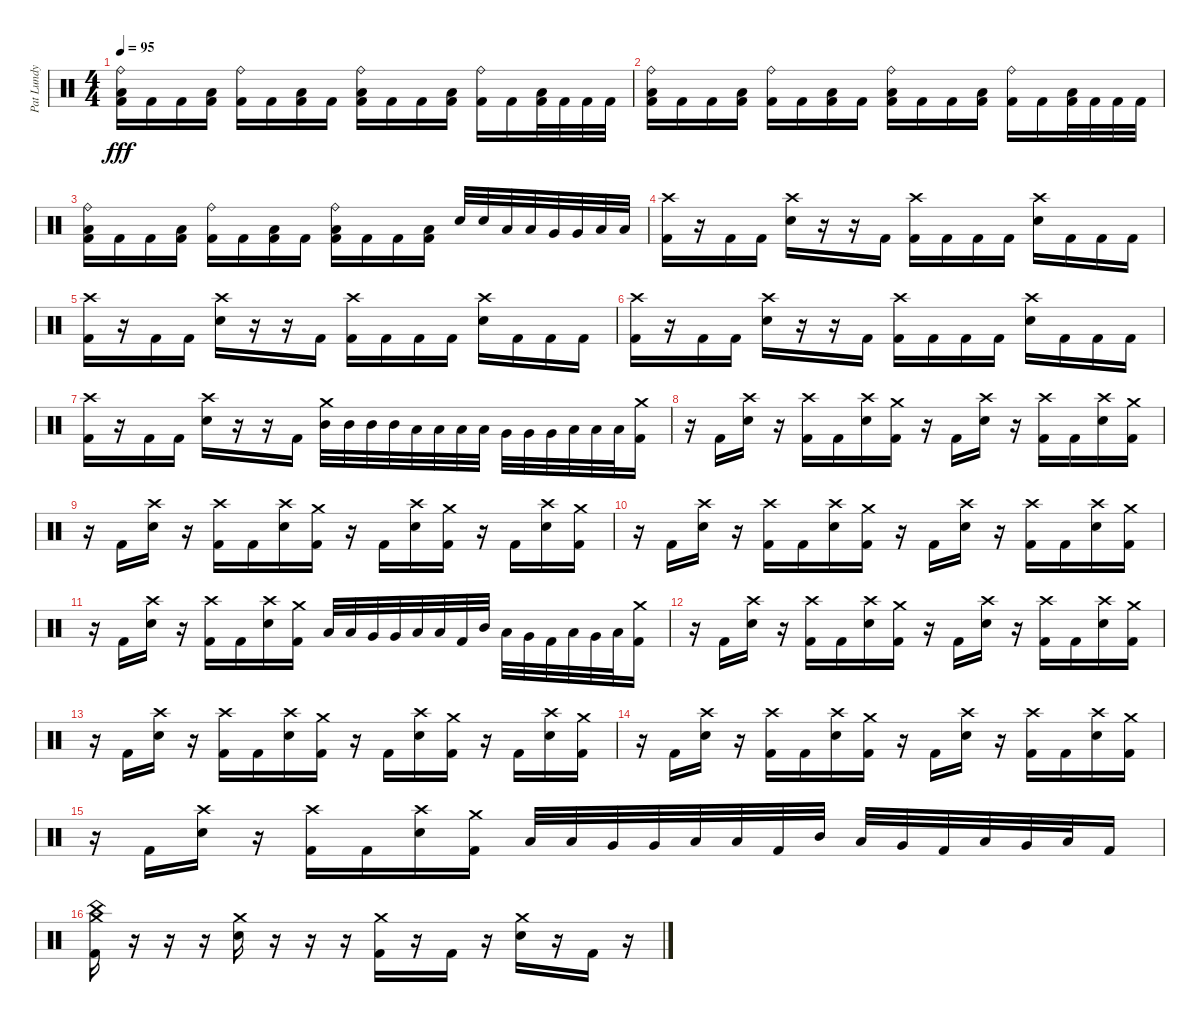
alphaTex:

\track ("Pat Lundy" "Pat Lundy") {instrument percussion}
\staff {score}
\articulation defaults
\ts (4 4)
\tempo 95
\clef neutral
\ks c
("Ride (bell)" "Low Floor Tom (hit)" "Kick (hit) 2").16{dy fff} "Kick (hit) 2".16 "Kick (hit) 2".16 ("Low Floor Tom (hit)" "Kick (hit) 2").16 ("Ride (bell)" "Kick (hit) 2").16 "Kick (hit) 2".16 ("Low Floor Tom (hit)" "Kick (hit) 2").16 "Kick (hit) 2".16 ("Ride (bell)" "Low Floor Tom (hit)" "Kick (hit) 2").16 "Kick (hit) 2".16 "Kick (hit) 2".16 ("Low Floor Tom (hit)" "Kick (hit) 2").16 ("Ride (bell)" "Kick (hit) 2").16 "Kick (hit) 2".16 ("Low Floor Tom (hit)" "Kick (hit) 2").32 "Kick (hit) 2".32 "Kick (hit) 2".32 "Kick (hit) 2".32 |
("Ride (bell)" "Low Floor Tom (hit)" "Kick (hit) 2").16 "Kick (hit) 2".16 "Kick (hit) 2".16 ("Low Floor Tom (hit)" "Kick (hit) 2").16 ("Ride (bell)" "Kick (hit) 2").16 "Kick (hit) 2".16 ("Low Floor Tom (hit)" "Kick (hit) 2").16 "Kick (hit) 2".16 ("Ride (bell)" "Low Floor Tom (hit)" "Kick (hit) 2").16 "Kick (hit) 2".16 "Kick (hit) 2".16 ("Low Floor Tom (hit)" "Kick (hit) 2").16 ("Ride (bell)" "Kick (hit) 2").16 "Kick (hit) 2".16 ("Low Floor Tom (hit)" "Kick (hit) 2").32 "Kick (hit) 2".32 "Kick (hit) 2".32 "Kick (hit) 2".32 |
("Ride (bell)" "Low Floor Tom (hit)" "Kick (hit) 2").16 "Kick (hit) 2".16 "Kick (hit) 2".16 ("Low Floor Tom (hit)" "Kick (hit) 2").16 ("Ride (bell)" "Kick (hit) 2").16 "Kick (hit) 2".16 ("Low Floor Tom (hit)" "Kick (hit) 2").16 "Kick (hit) 2".16 ("Ride (bell)" "Low Floor Tom (hit)" "Kick (hit) 2").16 "Kick (hit) 2".16 "Kick (hit) 2".16 ("Low Floor Tom (hit)" "Kick (hit) 2").16 "Electric Snare (hit)".32 "Electric Snare (hit)".32 "Low Tom (hit)".32 "Low Tom (hit)".32 "Very Low Tom (hit)".32 "Very Low Tom (hit)".32 "Low Floor Tom (hit)".32 "Low Floor Tom (hit)".32 |
("Crash high (hit)" "Kick (hit) 2").16 r.16 "Kick (hit) 2".16 "Kick (hit) 2".16 ("Crash high (hit)" "Electric Snare (hit)").16 r.16 r.16 "Kick (hit) 2".16 ("Crash high (hit)" "Kick (hit) 2").16 "Kick (hit) 2".16 "Kick (hit) 2".16 "Kick (hit) 2".16 ("Crash high (hit)" "Electric Snare (hit)").16 "Kick (hit) 2".16 "Kick (hit) 2".16 "Kick (hit) 2".16 |
("Crash high (hit)" "Kick (hit) 2").16 r.16 "Kick (hit) 2".16 "Kick (hit) 2".16 ("Crash high (hit)" "Electric Snare (hit)").16 r.16 r.16 "Kick (hit) 2".16 ("Crash high (hit)" "Kick (hit) 2").16 "Kick (hit) 2".16 "Kick (hit) 2".16 "Kick (hit) 2".16 ("Crash high (hit)" "Electric Snare (hit)").16 "Kick (hit) 2".16 "Kick (hit) 2".16 "Kick (hit) 2".16 |
("Crash high (hit)" "Kick (hit) 2").16 r.16 "Kick (hit) 2".16 "Kick (hit) 2".16 ("Crash high (hit)" "Electric Snare (hit)").16 r.16 r.16 "Kick (hit) 2".16 ("Crash high (hit)" "Kick (hit) 2").16 "Kick (hit) 2".16 "Kick (hit) 2".16 "Kick (hit) 2".16 ("Crash high (hit)" "Electric Snare (hit)").16 "Kick (hit) 2".16 "Kick (hit) 2".16 "Kick (hit) 2".16 |
("Crash high (hit)" "Kick (hit) 2").16 r.16 "Kick (hit) 2".16 "Kick (hit) 2".16 ("Crash high (hit)" "Electric Snare (hit)").16 r.16 r.16 "Kick (hit) 2".16 ("Crash medium (hit)" "Mid Tom (hit)").32 "Mid Tom (hit)".32 "Mid Tom (hit)".32 "Mid Tom (hit)".32 "Low Tom (hit)".32 "Low Tom (hit)".32 "Low Tom (hit)".32 "Low Tom (hit)".32 "Very Low Tom (hit)".32 "Very Low Tom (hit)".32 "Very Low Tom (hit)".32 "Low Floor Tom (hit)".32 "Low Floor Tom (hit)".32 "Low Floor Tom (hit)".32 ("Crash medium (hit)" "Kick (hit) 2").16 |
r.16 "Kick (hit) 2".16 ("Crash high (hit)" "Electric Snare (hit)").16 r.16 ("Crash high (hit)" "Kick (hit) 2").16 "Kick (hit) 2".16 ("Crash high (hit)" "Electric Snare (hit)").16 ("Crash medium (hit)" "Kick (hit) 2").16 r.16 "Kick (hit) 2".16 ("Crash high (hit)" "Electric Snare (hit)").16 r.16 ("Crash high (hit)" "Kick (hit) 2").16 "Kick (hit) 2".16 ("Crash high (hit)" "Electric Snare (hit)").16 ("Crash medium (hit)" "Kick (hit) 2").16 |
r.16 "Kick (hit) 2".16 ("Crash high (hit)" "Electric Snare (hit)").16 r.16 ("Crash high (hit)" "Kick (hit) 2").16 "Kick (hit) 2".16 ("Crash high (hit)" "Electric Snare (hit)").16 ("Crash medium (hit)" "Kick (hit) 2").16 r.16 "Kick (hit) 2".16 ("Crash high (hit)" "Electric Snare (hit)").16 ("Crash medium (hit)" "Kick (hit) 2").16 r.16 "Kick (hit) 2".16 ("Crash high (hit)" "Electric Snare (hit)").16 ("Crash medium (hit)" "Kick (hit) 2").16 |
r.16 "Kick (hit) 2".16 ("Crash high (hit)" "Electric Snare (hit)").16 r.16 ("Crash high (hit)" "Kick (hit) 2").16 "Kick (hit) 2".16 ("Crash high (hit)" "Electric Snare (hit)").16 ("Crash medium (hit)" "Kick (hit) 2").16 r.16 "Kick (hit) 2".16 ("Crash high (hit)" "Electric Snare (hit)").16 r.16 ("Crash high (hit)" "Kick (hit) 2").16 "Kick (hit) 2".16 ("Crash high (hit)" "Electric Snare (hit)").16 ("Crash medium (hit)" "Kick (hit) 2").16 |
r.16 "Kick (hit) 2".16 ("Crash high (hit)" "Electric Snare (hit)").16 r.16 ("Crash high (hit)" "Kick (hit) 2").16 "Kick (hit) 2".16 ("Crash high (hit)" "Electric Snare (hit)").16 ("Crash medium (hit)" "Kick (hit) 2").16 "Low Tom (hit)".32 "Low Tom (hit)".32 "Very Low Tom (hit)".32 "Very Low Tom (hit)".32 "Low Floor Tom (hit)".32 "Low Floor Tom (hit)".32 "Kick (hit) 2".32 "Mid Tom (hit)".32 "Low Tom (hit)".32 "Very Low Tom (hit)".32 "Kick (hit) 2".32 "Low Tom (hit)".32 "Very Low Tom (hit)".32 "Low Floor Tom (hit)".32 ("Crash medium (hit)" "Kick (hit) 2").16 |
r.16 "Kick (hit) 2".16 ("Crash high (hit)" "Electric Snare (hit)").16 r.16 ("Crash high (hit)" "Kick (hit) 2").16 "Kick (hit) 2".16 ("Crash high (hit)" "Electric Snare (hit)").16 ("Crash medium (hit)" "Kick (hit) 2").16 r.16 "Kick (hit) 2".16 ("Crash high (hit)" "Electric Snare (hit)").16 r.16 ("Crash high (hit)" "Kick (hit) 2").16 "Kick (hit) 2".16 ("Crash high (hit)" "Electric Snare (hit)").16 ("Crash medium (hit)" "Kick (hit) 2").16 |
r.16 "Kick (hit) 2".16 ("Crash high (hit)" "Electric Snare (hit)").16 r.16 ("Crash high (hit)" "Kick (hit) 2").16 "Kick (hit) 2".16 ("Crash high (hit)" "Electric Snare (hit)").16 ("Crash medium (hit)" "Kick (hit) 2").16 r.16 "Kick (hit) 2".16 ("Crash high (hit)" "Electric Snare (hit)").16 ("Crash medium (hit)" "Kick (hit) 2").16 r.16 "Kick (hit) 2".16 ("Crash high (hit)" "Electric Snare (hit)").16 ("Crash medium (hit)" "Kick (hit) 2").16 |
r.16 "Kick (hit) 2".16 ("Crash high (hit)" "Electric Snare (hit)").16 r.16 ("Crash high (hit)" "Kick (hit) 2").16 "Kick (hit) 2".16 ("Crash high (hit)" "Electric Snare (hit)").16 ("Crash medium (hit)" "Kick (hit) 2").16 r.16 "Kick (hit) 2".16 ("Crash high (hit)" "Electric Snare (hit)").16 r.16 ("Crash high (hit)" "Kick (hit) 2").16 "Kick (hit) 2".16 ("Crash high (hit)" "Electric Snare (hit)").16 ("Crash medium (hit)" "Kick (hit) 2").16 |
r.16 "Kick (hit) 2".16 ("Crash high (hit)" "Electric Snare (hit)").16 r.16 ("Crash high (hit)" "Kick (hit) 2").16 "Kick (hit) 2".16 ("Crash high (hit)" "Electric Snare (hit)").16 ("Crash medium (hit)" "Kick (hit) 2").16 "Low Tom (hit)".32 "Low Tom (hit)".32 "Very Low Tom (hit)".32 "Very Low Tom (hit)".32 "Low Floor Tom (hit)".32 "Low Floor Tom (hit)".32 "Kick (hit) 2".32 "Mid Tom (hit)".32 "Low Tom (hit)".32 "Very Low Tom (hit)".32 "Kick (hit) 2".32 "Low Tom (hit)".32 "Very Low Tom (hit)".32 "Low Floor Tom (hit)".32 "Kick (hit) 2".16 |
("Crash medium (hit)" "China (hit)" "Kick (hit) 2").16 r.16 r.16 r.16 ("Crash medium (hit)" "Electric Snare (hit)").16 r.16 r.16 r.16 ("Crash medium (hit)" "Kick (hit) 2").16 r.16 "Kick (hit) 2".16 r.16 ("Crash medium (hit)" "Electric Snare (hit)").16 r.16 "Kick (hit) 2".16 r.16
